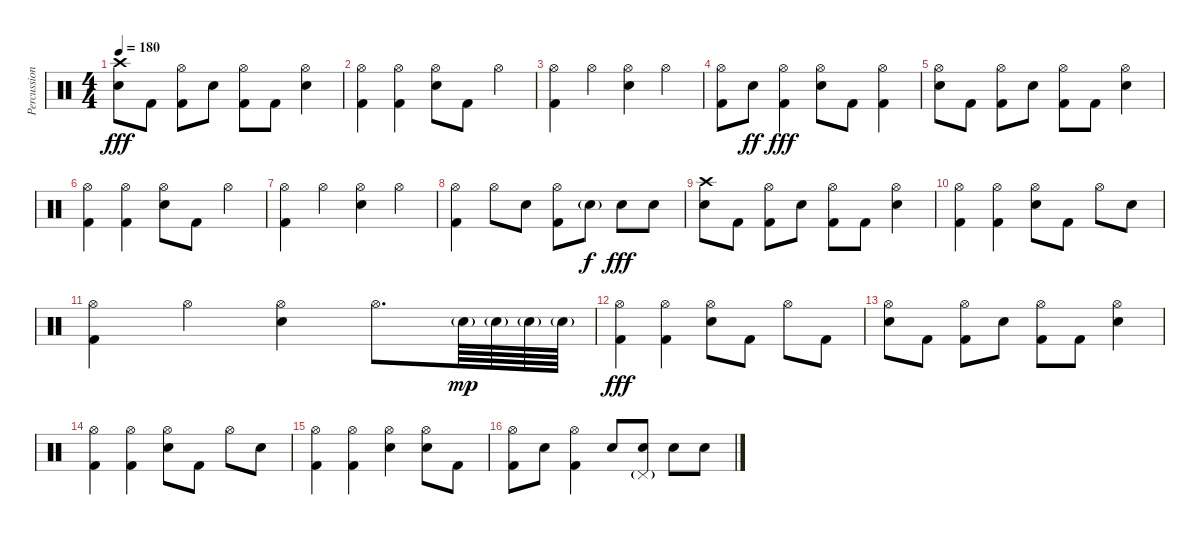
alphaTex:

\track ("Percussion" "Percussion") {instrument percussion}
\staff {score}
\articulation defaults
\ts (4 4)
\tempo 180
\clef neutral
\ks c
("Crash high (hit)" "Electric Snare (hit)").8{dy fff} "Kick (hit) 2".8 ("Hi-Hat (open)" "Kick (hit) 2").8 "Electric Snare (hit)".8 ("Hi-Hat (open)" "Kick (hit) 2").8 "Kick (hit) 2".8 ("Hi-Hat (open)" "Electric Snare (hit)").4 |
("Hi-Hat (open)" "Kick (hit) 2").4 ("Hi-Hat (open)" "Kick (hit) 2").4 ("Hi-Hat (open)" "Electric Snare (hit)").8 "Kick (hit) 2".8 "Hi-Hat (open)".4 |
("Hi-Hat (open)" "Kick (hit) 2").4 "Hi-Hat (open)".4 ("Hi-Hat (open)" "Electric Snare (hit)").4 "Hi-Hat (open)".4 |
("Hi-Hat (open)" "Kick (hit) 2").8 "Electric Snare (hit)".8{dy ff} ("Hi-Hat (open)" "Kick (hit) 2").4{dy fff} ("Hi-Hat (open)" "Electric Snare (hit)").8 "Kick (hit) 2".8 ("Hi-Hat (open)" "Kick (hit) 2").4 |
("Hi-Hat (open)" "Electric Snare (hit)").8 "Kick (hit) 2".8 ("Hi-Hat (open)" "Kick (hit) 2").8 "Electric Snare (hit)".8 ("Hi-Hat (open)" "Kick (hit) 2").8 "Kick (hit) 2".8 ("Hi-Hat (open)" "Electric Snare (hit)").4 |
("Hi-Hat (open)" "Kick (hit) 2").4 ("Hi-Hat (open)" "Kick (hit) 2").4 ("Hi-Hat (open)" "Electric Snare (hit)").8 "Kick (hit) 2".8 "Hi-Hat (open)".4 |
("Hi-Hat (open)" "Kick (hit) 2").4 "Hi-Hat (open)".4 ("Hi-Hat (open)" "Electric Snare (hit)").4 "Hi-Hat (open)".4 |
("Hi-Hat (open)" "Kick (hit) 2").4 "Hi-Hat (open)".8 "Electric Snare (hit)".8 ("Hi-Hat (open)" "Kick (hit) 2").8 "Electric Snare (hit)"{g}.8{dy f} "Electric Snare (hit)".8{dy fff} "Electric Snare (hit)".8 |
("Crash high (hit)" "Electric Snare (hit)").8 "Kick (hit) 2".8 ("Hi-Hat (open)" "Kick (hit) 2").8 "Electric Snare (hit)".8 ("Hi-Hat (open)" "Kick (hit) 2").8 "Kick (hit) 2".8 ("Hi-Hat (open)" "Electric Snare (hit)").4 |
("Hi-Hat (open)" "Kick (hit) 2").4 ("Hi-Hat (open)" "Kick (hit) 2").4 ("Hi-Hat (open)" "Electric Snare (hit)").8 "Kick (hit) 2".8 "Hi-Hat (open)".8 "Electric Snare (hit)".8 |
("Hi-Hat (open)" "Kick (hit) 2").4 "Hi-Hat (open)".4 ("Hi-Hat (open)" "Electric Snare (hit)").4 "Hi-Hat (open)".8{d} "Electric Snare (hit)"{g}.64{dy mp} "Electric Snare (hit)"{g}.64 "Electric Snare (hit)"{g}.64 "Electric Snare (hit)"{g}.64 |
("Hi-Hat (open)" "Kick (hit) 2").4{dy fff} ("Hi-Hat (open)" "Kick (hit) 2").4 ("Hi-Hat (open)" "Electric Snare (hit)").8 "Kick (hit) 2".8 "Hi-Hat (open)".8 "Kick (hit) 2".8 |
("Hi-Hat (open)" "Electric Snare (hit)").8 "Kick (hit) 2".8 ("Hi-Hat (open)" "Kick (hit) 2").8 "Electric Snare (hit)".8 ("Hi-Hat (open)" "Kick (hit) 2").8 "Kick (hit) 2".8 ("Hi-Hat (open)" "Electric Snare (hit)").4 |
("Hi-Hat (open)" "Kick (hit) 2").4 ("Hi-Hat (open)" "Kick (hit) 2").4 ("Hi-Hat (open)" "Electric Snare (hit)").8 "Kick (hit) 2".8 "Hi-Hat (open)".8 "Electric Snare (hit)".8 |
("Hi-Hat (open)" "Kick (hit) 2").4 ("Hi-Hat (open)" "Kick (hit) 2").4 ("Hi-Hat (open)" "Electric Snare (hit)").4 ("Hi-Hat (open)" "Electric Snare (hit)").8 "Kick (hit) 2".8 |
("Hi-Hat (open)" "Kick (hit) 2").8 "Electric Snare (hit)".8 ("Hi-Hat (open)" "Kick (hit) 2").4 "Electric Snare (hit)".8 ("Pedal Hi-Hat (hit)"{g} "Electric Snare (hit)").8 "Electric Snare (hit)".8 "Electric Snare (hit)".8
